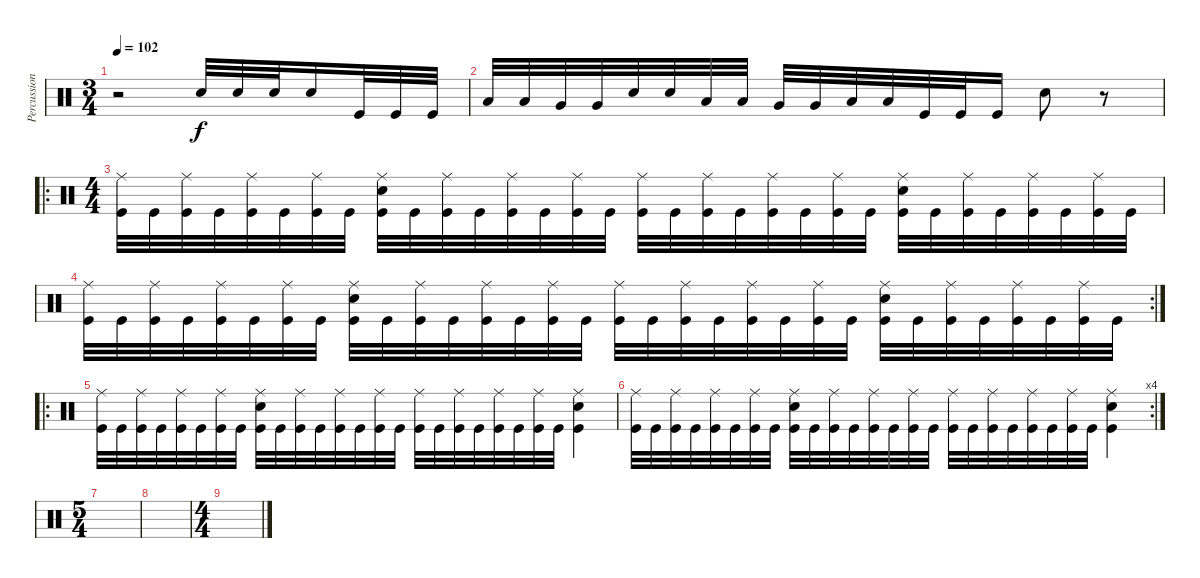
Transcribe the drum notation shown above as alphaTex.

\track ("Percussion" "Percussion") {instrument percussion}
\staff {score}
\articulation defaults
\ts (3 4)
\tempo 102
\clef neutral
\ks c
r.2{dy f} "Snare (hit) 2".32 "Snare (hit) 2".32 "Snare (hit) 2".32 "Snare (hit) 2".16 "Kick (hit)".32 "Kick (hit)".32 "Kick (hit)".32 |
"Low Tom (hit)".32 "Low Tom (hit)".32 "Very Low Tom (hit)".32 "Very Low Tom (hit)".32 "Snare (hit) 2".32 "Snare (hit) 2".32 "Low Tom (hit)".32 "Low Tom (hit)".32 "Very Low Tom (hit)".32 "Very Low Tom (hit)".32 "Low Floor Tom (hit)".32 "Low Floor Tom (hit)".32 "Kick (hit)".32 "Kick (hit)".32 "Kick (hit)".16 "Snare (hit) 2".8 r.8 |
\ro
\ts (4 4)
("Ride (middle)" "Kick (hit)").32 "Kick (hit)".32 ("Ride (middle)" "Kick (hit)").32 "Kick (hit)".32 ("Ride (middle)" "Kick (hit)").32 "Kick (hit)".32 ("Ride (middle)" "Kick (hit)").32 "Kick (hit)".32 ("Ride (middle)" "Snare (hit) 2" "Kick (hit)").32 "Kick (hit)".32 ("Ride (middle)" "Kick (hit)").32 "Kick (hit)".32 ("Ride (middle)" "Kick (hit)").32 "Kick (hit)".32 ("Ride (middle)" "Kick (hit)").32 "Kick (hit)".32 ("Ride (middle)" "Kick (hit)").32 "Kick (hit)".32 ("Ride (middle)" "Kick (hit)").32 "Kick (hit)".32 ("Ride (middle)" "Kick (hit)").32 "Kick (hit)".32 ("Ride (middle)" "Kick (hit)").32 "Kick (hit)".32 ("Ride (middle)" "Snare (hit) 2" "Kick (hit)").32 "Kick (hit)".32 ("Ride (middle)" "Kick (hit)").32 "Kick (hit)".32 ("Ride (middle)" "Kick (hit)").32 "Kick (hit)".32 ("Ride (middle)" "Kick (hit)").32 "Kick (hit)".32 |
\rc 2
("Ride (middle)" "Kick (hit)").32 "Kick (hit)".32 ("Ride (middle)" "Kick (hit)").32 "Kick (hit)".32 ("Ride (middle)" "Kick (hit)").32 "Kick (hit)".32 ("Ride (middle)" "Kick (hit)").32 "Kick (hit)".32 ("Ride (middle)" "Snare (hit) 2" "Kick (hit)").32 "Kick (hit)".32 ("Ride (middle)" "Kick (hit)").32 "Kick (hit)".32 ("Ride (middle)" "Kick (hit)").32 "Kick (hit)".32 ("Ride (middle)" "Kick (hit)").32 "Kick (hit)".32 ("Ride (middle)" "Kick (hit)").32 "Kick (hit)".32 ("Ride (middle)" "Kick (hit)").32 "Kick (hit)".32 ("Ride (middle)" "Kick (hit)").32 "Kick (hit)".32 ("Ride (middle)" "Kick (hit)").32 "Kick (hit)".32 ("Ride (middle)" "Snare (hit) 2" "Kick (hit)").32 "Kick (hit)".32 ("Ride (middle)" "Kick (hit)").32 "Kick (hit)".32 ("Ride (middle)" "Kick (hit)").32 "Kick (hit)".32 ("Ride (middle)" "Kick (hit)").32 "Kick (hit)".32 |
\ro
("Ride (middle)" "Kick (hit)").32 "Kick (hit)".32 ("Ride (middle)" "Kick (hit)").32 "Kick (hit)".32 ("Ride (middle)" "Kick (hit)").32 "Kick (hit)".32 ("Ride (middle)" "Kick (hit)").32 "Kick (hit)".32 ("Ride (middle)" "Snare (hit) 2" "Kick (hit)").32 "Kick (hit)".32 ("Ride (middle)" "Kick (hit)").32 "Kick (hit)".32 ("Ride (middle)" "Kick (hit)").32 "Kick (hit)".32 ("Ride (middle)" "Kick (hit)").32 "Kick (hit)".32 ("Ride (middle)" "Kick (hit)").32 "Kick (hit)".32 ("Ride (middle)" "Kick (hit)").32 "Kick (hit)".32 ("Ride (middle)" "Kick (hit)").32 "Kick (hit)".32 ("Ride (middle)" "Kick (hit)").32 "Kick (hit)".32 ("Ride (middle)" "Snare (hit) 2" "Kick (hit)").4 |
\rc 4
("Ride (middle)" "Kick (hit)").32 "Kick (hit)".32 ("Ride (middle)" "Kick (hit)").32 "Kick (hit)".32 ("Ride (middle)" "Kick (hit)").32 "Kick (hit)".32 ("Ride (middle)" "Kick (hit)").32 "Kick (hit)".32 ("Ride (middle)" "Snare (hit) 2" "Kick (hit)").32 "Kick (hit)".32 ("Ride (middle)" "Kick (hit)").32 "Kick (hit)".32 ("Ride (middle)" "Kick (hit)").32 "Kick (hit)".32 ("Ride (middle)" "Kick (hit)").32 "Kick (hit)".32 ("Ride (middle)" "Kick (hit)").32 "Kick (hit)".32 ("Ride (middle)" "Kick (hit)").32 "Kick (hit)".32 ("Ride (middle)" "Kick (hit)").32 "Kick (hit)".32 ("Ride (middle)" "Kick (hit)").32 "Kick (hit)".32 ("Ride (middle)" "Snare (hit) 2" "Kick (hit)").4 |
\ts (5 4)
|
|
\ts (4 4)
